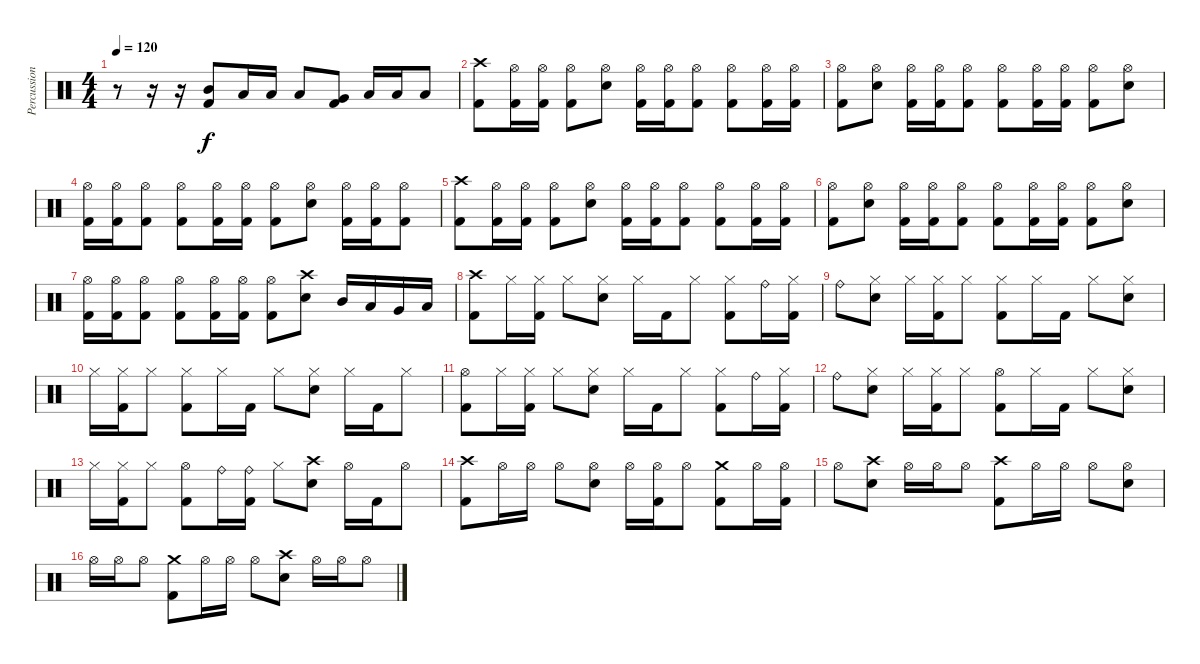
\track ("Percussion" "Percussion") {instrument percussion}
\staff {score}
\articulation defaults
\ts (4 4)
\tempo 120
\clef neutral
\ks c
r.8{dy f} r.16 r.16 ("Mid Tom (hit)" "Kick (hit) 2").8 "Low Tom (hit)".16 "Low Tom (hit)".16 "Low Tom (hit)".8 ("Very Low Tom (hit)" "Kick (hit) 2").8 "Low Floor Tom (hit)".16 "Low Floor Tom (hit)".16 "Low Floor Tom (hit)".8 |
("Crash high (hit)" "Kick (hit) 2").8 ("Hi-Hat (open)" "Kick (hit) 2").16 ("Hi-Hat (open)" "Kick (hit) 2").16 ("Hi-Hat (open)" "Kick (hit) 2").8 ("Hi-Hat (open)" "Snare (hit) 2").8 ("Hi-Hat (open)" "Kick (hit) 2").16 ("Hi-Hat (open)" "Kick (hit) 2").16 ("Hi-Hat (open)" "Kick (hit) 2").8 ("Hi-Hat (open)" "Kick (hit) 2").8 ("Hi-Hat (open)" "Kick (hit) 2").16 ("Hi-Hat (open)" "Kick (hit) 2").16 |
("Hi-Hat (open)" "Kick (hit) 2").8 ("Hi-Hat (open)" "Snare (hit) 2").8 ("Hi-Hat (open)" "Kick (hit) 2").16 ("Hi-Hat (open)" "Kick (hit) 2").16 ("Hi-Hat (open)" "Kick (hit) 2").8 ("Hi-Hat (open)" "Kick (hit) 2").8 ("Hi-Hat (open)" "Kick (hit) 2").16 ("Hi-Hat (open)" "Kick (hit) 2").16 ("Hi-Hat (open)" "Kick (hit) 2").8 ("Hi-Hat (open)" "Snare (hit) 2").8 |
("Hi-Hat (open)" "Kick (hit) 2").16 ("Hi-Hat (open)" "Kick (hit) 2").16 ("Hi-Hat (open)" "Kick (hit) 2").8 ("Hi-Hat (open)" "Kick (hit) 2").8 ("Hi-Hat (open)" "Kick (hit) 2").16 ("Hi-Hat (open)" "Kick (hit) 2").16 ("Hi-Hat (open)" "Kick (hit) 2").8 ("Hi-Hat (open)" "Snare (hit) 2").8 ("Hi-Hat (open)" "Kick (hit) 2").16 ("Hi-Hat (open)" "Kick (hit) 2").16 ("Hi-Hat (open)" "Kick (hit) 2").8 |
("Crash high (hit)" "Kick (hit) 2").8 ("Hi-Hat (open)" "Kick (hit) 2").16 ("Hi-Hat (open)" "Kick (hit) 2").16 ("Hi-Hat (open)" "Kick (hit) 2").8 ("Hi-Hat (open)" "Snare (hit) 2").8 ("Hi-Hat (open)" "Kick (hit) 2").16 ("Hi-Hat (open)" "Kick (hit) 2").16 ("Hi-Hat (open)" "Kick (hit) 2").8 ("Hi-Hat (open)" "Kick (hit) 2").8 ("Hi-Hat (open)" "Kick (hit) 2").16 ("Hi-Hat (open)" "Kick (hit) 2").16 |
("Hi-Hat (open)" "Kick (hit) 2").8 ("Hi-Hat (open)" "Snare (hit) 2").8 ("Hi-Hat (open)" "Kick (hit) 2").16 ("Hi-Hat (open)" "Kick (hit) 2").16 ("Hi-Hat (open)" "Kick (hit) 2").8 ("Hi-Hat (open)" "Kick (hit) 2").8 ("Hi-Hat (open)" "Kick (hit) 2").16 ("Hi-Hat (open)" "Kick (hit) 2").16 ("Hi-Hat (open)" "Kick (hit) 2").8 ("Hi-Hat (open)" "Snare (hit) 2").8 |
("Hi-Hat (open)" "Kick (hit) 2").16 ("Hi-Hat (open)" "Kick (hit) 2").16 ("Hi-Hat (open)" "Kick (hit) 2").8 ("Hi-Hat (open)" "Kick (hit) 2").8 ("Hi-Hat (open)" "Kick (hit) 2").16 ("Hi-Hat (open)" "Kick (hit) 2").16 ("Hi-Hat (open)" "Kick (hit) 2").8 ("Crash high (hit)" "Snare (hit) 2").8 "Mid Tom (hit)".16 "Low Tom (hit)".16 "Very Low Tom (hit)".16 "Low Floor Tom (hit)".16 |
("Crash high (hit)" "Kick (hit) 2").8 "Hi-Hat (closed)".16 ("Hi-Hat (closed)" "Kick (hit) 2").16 "Hi-Hat (closed)".8 ("Hi-Hat (closed)" "Snare (hit) 2").8 "Hi-Hat (closed)".16 "Kick (hit) 2".16 "Hi-Hat (closed)".8 ("Hi-Hat (closed)" "Kick (hit) 2").8 "Ride (bell)".16 ("Hi-Hat (closed)" "Kick (hit) 2").16 |
"Ride (bell)".8 ("Hi-Hat (closed)" "Snare (hit) 2").8 "Hi-Hat (closed)".16 ("Hi-Hat (closed)" "Kick (hit) 2").16 "Hi-Hat (closed)".8 ("Hi-Hat (closed)" "Kick (hit) 2").8 "Hi-Hat (closed)".16 "Kick (hit) 2".16 "Hi-Hat (closed)".8 ("Hi-Hat (closed)" "Snare (hit) 2").8 |
"Hi-Hat (closed)".16 ("Hi-Hat (closed)" "Kick (hit) 2").16 "Hi-Hat (closed)".8 ("Hi-Hat (closed)" "Kick (hit) 2").8 "Hi-Hat (closed)".16 "Kick (hit) 2".16 "Hi-Hat (closed)".8 ("Hi-Hat (closed)" "Snare (hit) 2").8 "Hi-Hat (closed)".16 "Kick (hit) 2".16 "Hi-Hat (closed)".8 |
("Hi-Hat (open)" "Kick (hit) 2").8 "Hi-Hat (closed)".16 ("Hi-Hat (closed)" "Kick (hit) 2").16 "Hi-Hat (closed)".8 ("Hi-Hat (closed)" "Snare (hit) 2").8 "Hi-Hat (closed)".16 "Kick (hit) 2".16 "Hi-Hat (closed)".8 ("Hi-Hat (closed)" "Kick (hit) 2").8 "Ride (bell)".16 ("Hi-Hat (closed)" "Kick (hit) 2").16 |
"Ride (bell)".8 ("Hi-Hat (closed)" "Snare (hit) 2").8 "Hi-Hat (closed)".16 ("Hi-Hat (closed)" "Kick (hit) 2").16 "Hi-Hat (closed)".8 ("Hi-Hat (open)" "Kick (hit) 2").8 "Hi-Hat (closed)".16 "Kick (hit) 2".16 "Hi-Hat (closed)".8 ("Hi-Hat (closed)" "Snare (hit) 2").8 |
"Hi-Hat (closed)".16 ("Hi-Hat (closed)" "Kick (hit) 2").16 "Hi-Hat (closed)".8 ("Hi-Hat (open)" "Kick (hit) 2").8 "Ride (bell)".16 ("Ride (bell)" "Kick (hit) 2").16 "Hi-Hat (closed)".8 ("Crash high (hit)" "Snare (hit) 2").8 "Hi-Hat (open)".16 "Kick (hit) 2".16 "Hi-Hat (open)".8 |
("Crash high (hit)" "Kick (hit) 2").8 "Hi-Hat (open)".16 "Hi-Hat (open)".16 "Hi-Hat (open)".8 ("Hi-Hat (open)" "Snare (hit) 2").8 "Hi-Hat (open)".16 ("Hi-Hat (open)" "Kick (hit) 2").16 "Hi-Hat (open)".8 ("Crash medium (hit)" "Kick (hit) 2").8 "Hi-Hat (open)".16 ("Hi-Hat (open)" "Kick (hit) 2").16 |
"Hi-Hat (open)".8 ("Crash high (hit)" "Snare (hit) 2").8 "Hi-Hat (open)".16 "Hi-Hat (open)".16 "Hi-Hat (open)".8 ("Crash high (hit)" "Kick (hit) 2").8 "Hi-Hat (open)".16 "Hi-Hat (open)".16 "Hi-Hat (open)".8 ("Hi-Hat (open)" "Snare (hit) 2").8 |
"Hi-Hat (open)".16 "Hi-Hat (open)".16 "Hi-Hat (open)".8 ("Crash medium (hit)" "Kick (hit) 2").8 "Hi-Hat (open)".16 "Hi-Hat (open)".16 "Hi-Hat (open)".8 ("Crash high (hit)" "Snare (hit) 2").8 "Hi-Hat (open)".16 "Hi-Hat (open)".16 "Hi-Hat (open)".8
